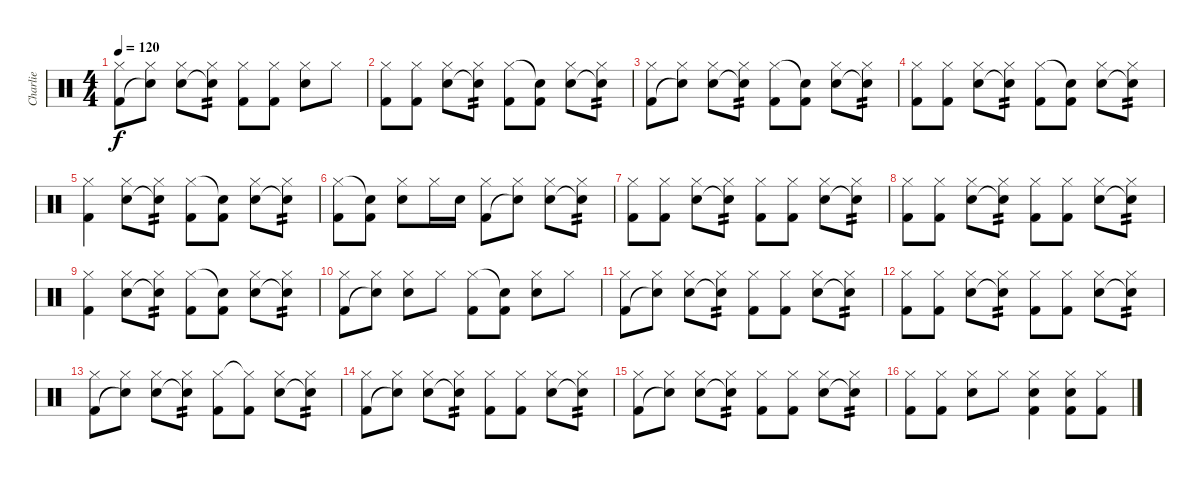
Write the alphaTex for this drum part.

\track ("Charlie" "Charlie") {instrument percussion}
\staff {score}
\articulation defaults
\ts (4 4)
\tempo 120
\clef neutral
\ks c
("Hi-Hat (closed)" "Kick (hit) 2").8{dy f} ("Hi-Hat (closed)" "Snare (hit)"{t}).8 ("Hi-Hat (closed)" "Snare (hit) 2").8 ("Hi-Hat (closed)" "Snare (hit)"{t}).8{tp 2} ("Hi-Hat (closed)" "Kick (hit) 2").8 ("Hi-Hat (closed)" "Kick (hit) 2").8 ("Hi-Hat (closed)" "Snare (hit) 2").8 "Hi-Hat (closed)".8 |
("Hi-Hat (closed)" "Kick (hit) 2").8 ("Hi-Hat (closed)" "Kick (hit) 2").8 ("Hi-Hat (closed)" "Snare (hit) 2").8 ("Hi-Hat (closed)" "Snare (hit)"{t}).8{tp 2} ("Hi-Hat (closed)" "Kick (hit) 2").8 ("Snare (hit)"{t} "Kick (hit) 2").8 ("Hi-Hat (closed)" "Snare (hit) 2").8 ("Hi-Hat (closed)" "Snare (hit) 2"{t}).8{tp 2} |
("Hi-Hat (closed)" "Kick (hit) 2").8 ("Hi-Hat (closed)" "Snare (hit)"{t}).8 ("Hi-Hat (closed)" "Snare (hit) 2").8 ("Hi-Hat (closed)" "Snare (hit)"{t}).8{tp 2} ("Hi-Hat (closed)" "Kick (hit) 2").8 ("Snare (hit)"{t} "Kick (hit) 2").8 ("Hi-Hat (closed)" "Snare (hit) 2").8 ("Hi-Hat (closed)" "Snare (hit)"{t}).8{tp 2} |
("Hi-Hat (closed)" "Kick (hit) 2").8 ("Hi-Hat (closed)" "Kick (hit) 2").8 ("Hi-Hat (closed)" "Snare (hit) 2").8 ("Hi-Hat (closed)" "Snare (hit)"{t}).8{tp 2} ("Hi-Hat (closed)" "Kick (hit) 2").8 ("Snare (hit)"{t} "Kick (hit) 2").8 ("Hi-Hat (closed)" "Snare (hit) 2").8 ("Hi-Hat (closed)" "Snare (hit)"{t}).8{tp 2} |
("Hi-Hat (closed)" "Kick (hit) 2").4 ("Hi-Hat (closed)" "Snare (hit) 2").8 ("Hi-Hat (closed)" "Snare (hit)"{t}).8{tp 2} ("Hi-Hat (closed)" "Kick (hit) 2").8 ("Snare (hit)"{t} "Kick (hit) 2").8 ("Hi-Hat (closed)" "Snare (hit) 2").8 ("Hi-Hat (closed)" "Snare (hit)"{t}).8{tp 2} |
("Hi-Hat (closed)" "Kick (hit) 2").8 ("Snare (hit)"{t} "Kick (hit) 2").8 ("Hi-Hat (closed)" "Snare (hit) 2").8 "Hi-Hat (closed)".16 "Snare (hit) 2".16 ("Hi-Hat (closed)" "Kick (hit) 2").8 ("Hi-Hat (closed)" "Snare (hit)"{t}).8 ("Hi-Hat (closed)" "Snare (hit) 2").8 ("Hi-Hat (closed)" "Snare (hit)"{t}).8{tp 2} |
("Hi-Hat (closed)" "Kick (hit) 2").8 ("Hi-Hat (closed)" "Kick (hit) 2").8 ("Hi-Hat (closed)" "Snare (hit) 2").8 ("Hi-Hat (closed)" "Snare (hit)"{t}).8{tp 2} ("Hi-Hat (closed)" "Kick (hit) 2").8 ("Hi-Hat (closed)" "Kick (hit) 2").8 ("Hi-Hat (closed)" "Snare (hit) 2").8 ("Hi-Hat (closed)" "Snare (hit)"{t}).8{tp 2} |
("Hi-Hat (closed)" "Kick (hit) 2").8 ("Hi-Hat (closed)" "Kick (hit) 2").8 ("Hi-Hat (closed)" "Snare (hit) 2").8 ("Hi-Hat (closed)" "Snare (hit)"{t}).8{tp 2} ("Hi-Hat (closed)" "Kick (hit) 2").8 ("Hi-Hat (closed)" "Kick (hit) 2").8 ("Hi-Hat (closed)" "Snare (hit) 2").8 ("Hi-Hat (closed)" "Snare (hit)"{t}).8{tp 2} |
("Hi-Hat (closed)" "Kick (hit) 2").4 ("Hi-Hat (closed)" "Snare (hit) 2").8 ("Hi-Hat (closed)" "Snare (hit)"{t}).8{tp 2} ("Hi-Hat (closed)" "Kick (hit) 2").8 ("Snare (hit)"{t} "Kick (hit) 2").8 ("Hi-Hat (closed)" "Snare (hit) 2").8 ("Hi-Hat (closed)" "Snare (hit)"{t}).8{tp 2} |
("Hi-Hat (closed)" "Kick (hit) 2").8 ("Hi-Hat (closed)" "Snare (hit)"{t}).8 ("Hi-Hat (closed)" "Snare (hit) 2").8 "Hi-Hat (closed)".8 ("Hi-Hat (closed)" "Kick (hit) 2").8 ("Snare (hit)"{t} "Kick (hit) 2").8 ("Hi-Hat (closed)" "Snare (hit) 2").8 "Hi-Hat (closed)".8 |
("Hi-Hat (closed)" "Kick (hit) 2").8 ("Hi-Hat (closed)" "Snare (hit)"{t}).8 ("Hi-Hat (closed)" "Snare (hit) 2").8 ("Hi-Hat (closed)" "Snare (hit)"{t}).8{tp 2} ("Hi-Hat (closed)" "Kick (hit) 2").8 ("Hi-Hat (closed)" "Kick (hit) 2").8 ("Hi-Hat (closed)" "Snare (hit) 2").8 ("Hi-Hat (closed)" "Snare (hit)"{t}).8{tp 2} |
("Hi-Hat (closed)" "Kick (hit) 2").8 ("Hi-Hat (closed)" "Kick (hit) 2").8 ("Hi-Hat (closed)" "Snare (hit) 2").8 ("Hi-Hat (closed)" "Snare (hit)"{t}).8{tp 2} ("Hi-Hat (closed)" "Kick (hit) 2").8 ("Hi-Hat (closed)" "Kick (hit) 2").8 ("Hi-Hat (closed)" "Snare (hit) 2").8 ("Hi-Hat (closed)" "Snare (hit)"{t}).8{tp 2} |
("Hi-Hat (closed)" "Kick (hit) 2").8 ("Hi-Hat (closed)" "Snare (hit)"{t}).8 ("Hi-Hat (closed)" "Snare (hit) 2").8 ("Hi-Hat (closed)" "Snare (hit)"{t}).8{tp 2} ("Hi-Hat (closed)" "Kick (hit) 2").8 ("Hi-Hat (closed)"{t} "Kick (hit) 2").8 ("Hi-Hat (closed)" "Snare (hit) 2").8 ("Hi-Hat (closed)" "Snare (hit)"{t}).8{tp 2} |
("Hi-Hat (closed)" "Kick (hit) 2").8 ("Hi-Hat (closed)" "Snare (hit)"{t}).8 ("Hi-Hat (closed)" "Snare (hit) 2").8 ("Hi-Hat (closed)" "Snare (hit)"{t}).8{tp 2} ("Hi-Hat (closed)" "Kick (hit) 2").8 ("Hi-Hat (closed)" "Kick (hit) 2").8 ("Hi-Hat (closed)" "Snare (hit) 2").8 ("Hi-Hat (closed)" "Snare (hit)"{t}).8{tp 2} |
("Hi-Hat (closed)" "Kick (hit) 2").8 ("Hi-Hat (closed)" "Snare (hit)"{t}).8 ("Hi-Hat (closed)" "Snare (hit) 2").8 ("Hi-Hat (closed)" "Snare (hit)"{t}).8{tp 2} ("Hi-Hat (closed)" "Kick (hit) 2").8 ("Hi-Hat (closed)" "Kick (hit) 2").8 ("Hi-Hat (closed)" "Snare (hit) 2").8 ("Hi-Hat (closed)" "Snare (hit)"{t}).8{tp 2} |
("Hi-Hat (closed)" "Kick (hit) 2").8 ("Hi-Hat (closed)" "Kick (hit) 2").8 ("Hi-Hat (closed)" "Snare (hit) 2").8 "Hi-Hat (closed)".8 ("Hi-Hat (closed)" "Snare (hit) 2" "Kick (hit) 2").4 ("Hi-Hat (closed)" "Snare (hit) 2" "Kick (hit) 2").8 ("Hi-Hat (closed)" "Kick (hit) 2").8
